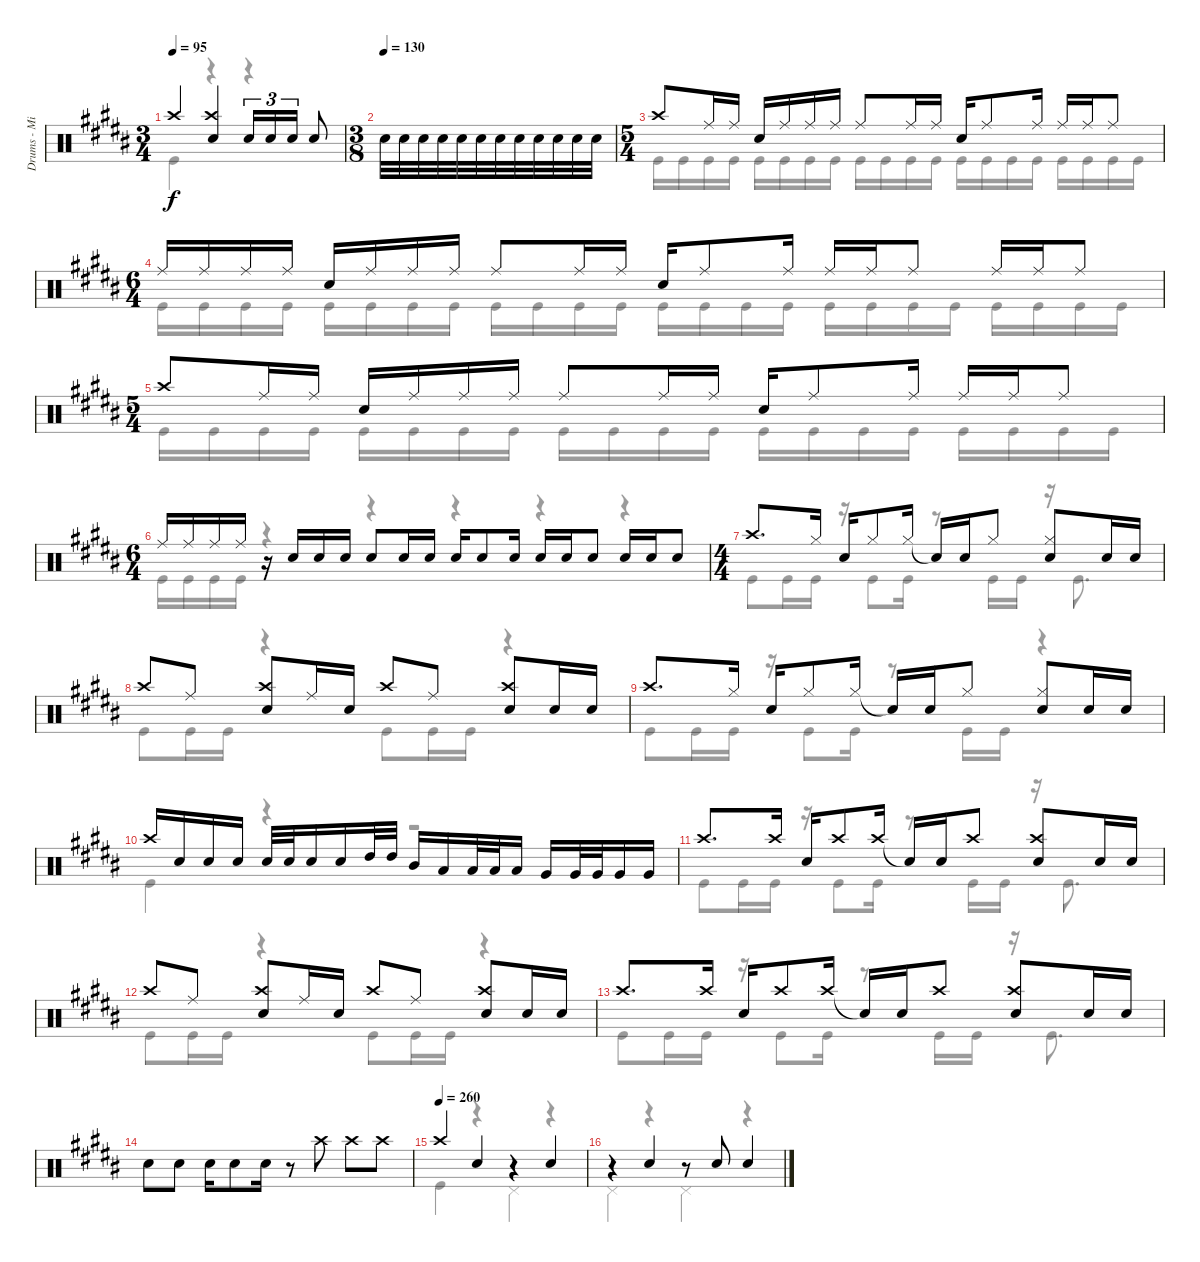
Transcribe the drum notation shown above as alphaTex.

\track ("Drums - Mike Portnoy" "Drums - Mi") {instrument percussion}
\staff {score}
\articulation defaults
\voice
\ts (3 4)
\tempo 95
\clef neutral
\ks b "Crash high (hit)".4{dy f}
("Crash high (hit)" "Snare (hit) 2").4 "Snare (hit) 2".16{tu (3 2)} "Snare (hit) 2".16{tu (3 2)} "Snare (hit) 2".16{tu (3 2)} "Snare (hit) 2".8 |
\ts (3 8)
\tempo (130)
"Snare (hit) 2".32 "Snare (hit) 2".32 "Snare (hit) 2".32 "Snare (hit) 2".32 "Snare (hit) 2".32 "Snare (hit) 2".32 "Snare (hit) 2".32 "Snare (hit) 2".32 "Snare (hit) 2".32 "Snare (hit) 2".32 "Snare (hit) 2".32 "Snare (hit) 2".32 |
\ts (5 4)
"Crash high (hit)".8 "Ride (middle)".16 "Ride (middle)".16 "Snare (hit) 2".16 "Ride (middle)".16 "Ride (middle)".16 "Ride (middle)".16 "Ride (middle)".8 "Ride (middle)".16 "Ride (middle)".16 "Snare (hit) 2".16 "Ride (middle)".8 "Ride (middle)".16 "Ride (middle)".16 "Ride (middle)".16 "Ride (middle)".8 |
\ts (6 4)
"Ride (middle)".16 "Ride (middle)".16 "Ride (middle)".16 "Ride (middle)".16 "Snare (hit) 2".16 "Ride (middle)".16 "Ride (middle)".16 "Ride (middle)".16 "Ride (middle)".8 "Ride (middle)".16 "Ride (middle)".16 "Snare (hit) 2".16 "Ride (middle)".8 "Ride (middle)".16 "Ride (middle)".16 "Ride (middle)".16 "Ride (middle)".8 "Ride (middle)".16 "Ride (middle)".16 "Ride (middle)".8 |
\ts (5 4)
"Crash high (hit)".8 "Ride (middle)".16 "Ride (middle)".16 "Snare (hit) 2".16 "Ride (middle)".16 "Ride (middle)".16 "Ride (middle)".16 "Ride (middle)".8 "Ride (middle)".16 "Ride (middle)".16 "Snare (hit) 2".16 "Ride (middle)".8 "Ride (middle)".16 "Ride (middle)".16 "Ride (middle)".16 "Ride (middle)".8 |
\ts (6 4)
"Ride (middle)".16 "Ride (middle)".16 "Ride (middle)".16 "Ride (middle)".16 r.16 "Snare (hit) 2".16 "Snare (hit) 2".16 "Snare (hit) 2".16 "Snare (hit) 2".8 "Snare (hit) 2".16 "Snare (hit) 2".16 "Snare (hit) 2".16 "Snare (hit) 2".8 "Snare (hit) 2".16 "Snare (hit) 2".16 "Snare (hit) 2".16 "Snare (hit) 2".8 "Snare (hit) 2".16 "Snare (hit) 2".16 "Snare (hit) 2".8 |
\ts (4 4)
"Crash high (hit)".8{d} "Hi-Hat (closed)".16 "Snare (hit) 2".16 "Hi-Hat (closed)".8 "Hi-Hat (closed)".16 "Snare (hit)"{t}.16 "Snare (hit) 2".16 "Hi-Hat (closed)".8 ("Hi-Hat (closed)" "Snare (hit) 2").8 "Snare (hit) 2".16 "Snare (hit) 2".16 |
"Crash high (hit)".8 "Ride (middle)".8 ("Crash high (hit)" "Snare (hit) 2").8 "Ride (middle)".16 "Snare (hit) 2".16 "Crash high (hit)".8 "Ride (middle)".8 ("Crash high (hit)" "Snare (hit) 2").8 "Snare (hit) 2".16 "Snare (hit) 2".16 |
"Crash high (hit)".8{d} "Hi-Hat (closed)".16 "Snare (hit) 2".16 "Hi-Hat (closed)".8 "Hi-Hat (closed)".16 "Snare (hit)"{t}.16 "Snare (hit) 2".16 "Hi-Hat (closed)".8 ("Hi-Hat (closed)" "Snare (hit) 2").8 "Snare (hit) 2".16 "Snare (hit) 2".16 |
"Crash high (hit)".16 "Snare (hit) 2".16 "Snare (hit) 2".16 "Snare (hit) 2".16 "Snare (hit) 2".32 "Snare (hit) 2".32 "Snare (hit) 2".16 "Snare (hit) 2".16 "High Tom (hit)".32 "High Tom (hit)".32 "Mid Tom (hit)".16 "Low Tom (hit)".16 "Low Tom (hit)".32 "Low Tom (hit)".32 "Low Tom (hit)".16 "Very Low Tom (hit)".16 "Very Low Tom (hit)".32 "Very Low Tom (hit)".32 "Very Low Tom (hit)".16 "Very Low Tom (hit)".16 |
"Crash high (hit)".8{d} "Crash high (hit)".16 "Snare (hit) 2".16 "Crash high (hit)".8 "Crash high (hit)".16 "Snare (hit)"{t}.16 "Snare (hit) 2".16 "Crash high (hit)".8 ("Crash high (hit)" "Snare (hit) 2").8 "Snare (hit) 2".16 "Snare (hit) 2".16 |
"Crash high (hit)".8 "Ride (middle)".8 ("Crash high (hit)" "Snare (hit) 2").8 "Ride (middle)".16 "Snare (hit) 2".16 "Crash high (hit)".8 "Ride (middle)".8 ("Crash high (hit)" "Snare (hit) 2").8 "Snare (hit) 2".16 "Snare (hit) 2".16 |
"Crash high (hit)".8{d} "Crash high (hit)".16 "Snare (hit) 2".16 "Crash high (hit)".8 "Crash high (hit)".16 "Snare (hit)"{t}.16 "Snare (hit) 2".16 "Crash high (hit)".8 ("Crash high (hit)" "Snare (hit) 2").8 "Snare (hit) 2".16 "Snare (hit) 2".16 |
"Snare (hit) 2".8 "Snare (hit) 2".8 "Snare (hit) 2".16 "Snare (hit) 2".8 "Snare (hit) 2".16 r.8 "Crash high (hit)".8 "Crash high (hit)".8 "Crash high (hit)".8 |
\tempo (260)
"Crash high (hit)".4 "Snare (hit) 2".4 r.4 "Snare (hit) 2".4 |
r.4 "Snare (hit) 2".4 r.8 "Snare (hit) 2".8 "Snare (hit) 2".4
\voice
\clef neutral
\ottava regular
\simile none
\ks b "Kick (hit)".4{dy f}
r.4 r.4 |
|
"Kick (hit)".16 "Kick (hit)".16 "Kick (hit)".16 "Kick (hit)".16 "Kick (hit)".16 "Kick (hit)".16 "Kick (hit)".16 "Kick (hit)".16 "Kick (hit)".16 "Kick (hit)".16 "Kick (hit)".16 "Kick (hit)".16 "Kick (hit)".16 "Kick (hit)".16 "Kick (hit)".16 "Kick (hit)".16 "Kick (hit)".16 "Kick (hit)".16 "Kick (hit)".16 "Kick (hit)".16 |
"Kick (hit)".16 "Kick (hit)".16 "Kick (hit)".16 "Kick (hit)".16 "Kick (hit)".16 "Kick (hit)".16 "Kick (hit)".16 "Kick (hit)".16 "Kick (hit)".16 "Kick (hit)".16 "Kick (hit)".16 "Kick (hit)".16 "Kick (hit)".16 "Kick (hit)".16 "Kick (hit)".16 "Kick (hit)".16 "Kick (hit)".16 "Kick (hit)".16 "Kick (hit)".16 "Kick (hit)".16 "Kick (hit)".16 "Kick (hit)".16 "Kick (hit)".16 "Kick (hit)".16 |
"Kick (hit)".16 "Kick (hit)".16 "Kick (hit)".16 "Kick (hit)".16 "Kick (hit)".16 "Kick (hit)".16 "Kick (hit)".16 "Kick (hit)".16 "Kick (hit)".16 "Kick (hit)".16 "Kick (hit)".16 "Kick (hit)".16 "Kick (hit)".16 "Kick (hit)".16 "Kick (hit)".16 "Kick (hit)".16 "Kick (hit)".16 "Kick (hit)".16 "Kick (hit)".16 "Kick (hit)".16 |
"Kick (hit)".16 "Kick (hit)".16 "Kick (hit)".16 "Kick (hit)".16 r.4 r.4 r.4 r.4 r.4 |
"Kick (hit)".8 "Kick (hit)".16 "Kick (hit)".16 r.16 "Kick (hit)".8 "Kick (hit)".16 r.8 "Kick (hit)".16 "Kick (hit)".16 r.16 "Kick (hit)".8{d} |
"Kick (hit)".8 "Kick (hit)".16 "Kick (hit)".16 r.4 "Kick (hit)".8 "Kick (hit)".16 "Kick (hit)".16 r.4 |
"Kick (hit)".8 "Kick (hit)".16 "Kick (hit)".16 r.16 "Kick (hit)".8 "Kick (hit)".16 r.8 "Kick (hit)".16 "Kick (hit)".16 r.4 |
"Kick (hit)".4 r.4 r.2 |
"Kick (hit)".8 "Kick (hit)".16 "Kick (hit)".16 r.16 "Kick (hit)".8 "Kick (hit)".16 r.8 "Kick (hit)".16 "Kick (hit)".16 r.16 "Kick (hit)".8{d} |
"Kick (hit)".8 "Kick (hit)".16 "Kick (hit)".16 r.4 "Kick (hit)".8 "Kick (hit)".16 "Kick (hit)".16 r.4 |
"Kick (hit)".8 "Kick (hit)".16 "Kick (hit)".16 r.16 "Kick (hit)".8 "Kick (hit)".16 r.8 "Kick (hit)".16 "Kick (hit)".16 r.16 "Kick (hit)".8{d} |
|
"Kick (hit)".4 r.4 "Pedal Hi-Hat (hit)".4 r.4 |
"Pedal Hi-Hat (hit)".4 r.4 "Pedal Hi-Hat (hit)".4 r.4
